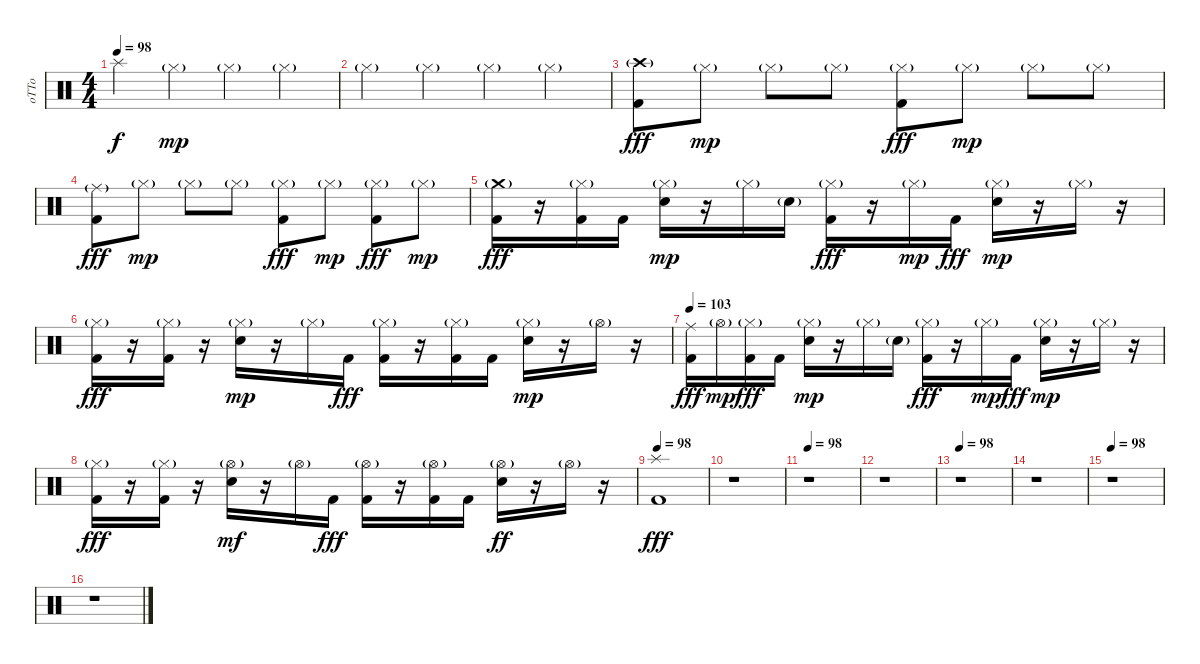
\track ("oTTo" "oTTo") {instrument percussion}
\staff {score}
\articulation defaults
\ts (4 4)
\tempo 98
\clef neutral
\ks c "Splash (hit)".4{dy f} "Hi-Hat (closed)"{g}.4{dy mp} "Hi-Hat (closed)"{g}.4 "Hi-Hat (closed)"{g}.4
|
"Hi-Hat (closed)"{g}.4 "Hi-Hat (closed)"{g}.4 "Hi-Hat (closed)"{g}.4 "Hi-Hat (closed)"{g}.4 |
("Crash high (hit)"{g} "Kick (hit) 2").8{dy fff} "Hi-Hat (closed)"{g}.8{dy mp} "Hi-Hat (closed)"{g}.8 "Hi-Hat (closed)"{g}.8 ("Hi-Hat (closed)"{g} "Kick (hit) 2").8{dy fff} "Hi-Hat (closed)"{g}.8{dy mp} "Hi-Hat (closed)"{g}.8 "Hi-Hat (closed)"{g}.8 |
("Ride (middle)"{g} "Kick (hit) 2").8{dy fff} "Hi-Hat (closed)"{g}.8{dy mp} "Hi-Hat (closed)"{g}.8 "Hi-Hat (closed)"{g}.8 ("Hi-Hat (closed)"{g} "Kick (hit) 2").8{dy fff} "Hi-Hat (closed)"{g}.8{dy mp} ("Hi-Hat (closed)"{g} "Kick (hit) 2").8{dy fff} "Hi-Hat (closed)"{g}.8{dy mp} |
("Crash medium (hit)"{g} "Kick (hit) 2").16{dy fff} r.16 ("Hi-Hat (closed)"{g} "Kick (hit) 2").16 "Kick (hit) 2".16 ("Hi-Hat (closed)"{g} "Snare (hit) 2").16{dy mp} r.16 "Hi-Hat (closed)"{g}.16 "Snare (hit) 2"{g}.16 ("Hi-Hat (closed)"{g} "Kick (hit) 2").16{dy fff} r.16 "Hi-Hat (closed)"{g}.16{dy mp} "Kick (hit) 2".16{dy fff} ("Hi-Hat (closed)"{g} "Snare (hit) 2").16{dy mp} r.16 "Hi-Hat (closed)"{g}.16 r.16 |
("Hi-Hat (closed)"{g} "Kick (hit) 2").16{dy fff} r.16 ("Hi-Hat (closed)"{g} "Kick (hit) 2").16 r.16 ("Hi-Hat (closed)"{g} "Snare (hit) 2").16{dy mp} r.16 "Hi-Hat (closed)"{g}.16 "Kick (hit) 2".16{dy fff} ("Hi-Hat (closed)"{g} "Kick (hit) 2").16 r.16 ("Hi-Hat (closed)"{g} "Kick (hit) 2").16 "Kick (hit) 2".16 ("Hi-Hat (closed)"{g} "Snare (hit) 2").16{dy mp} r.16 "Hi-Hat (open)"{g}.16 r.16 |
\tempo 103
("Ride (middle)" "Kick (hit) 2").16{dy fff} "Hi-Hat (open)"{g}.16{dy mp} ("Hi-Hat (closed)"{g} "Kick (hit) 2").16{dy fff} "Kick (hit) 2".16 ("Hi-Hat (closed)"{g} "Snare (hit) 2").16{dy mp} r.16 "Hi-Hat (closed)"{g}.16 "Snare (hit) 2"{g}.16 ("Hi-Hat (closed)"{g} "Kick (hit) 2").16{dy fff} r.16 "Hi-Hat (closed)"{g}.16{dy mp} "Kick (hit) 2".16{dy fff} ("Hi-Hat (closed)"{g} "Snare (hit) 2").16{dy mp} r.16 "Hi-Hat (closed)"{g}.16 r.16 |
("Hi-Hat (closed)"{g} "Kick (hit) 2").16{dy fff} r.16 ("Hi-Hat (closed)"{g} "Kick (hit) 2").16 r.16 ("Hi-Hat (open)"{g} "Snare (hit) 2").16{dy mf} r.16 "Hi-Hat (open)"{g}.16 "Kick (hit) 2".16{dy fff} ("Hi-Hat (open)"{g} "Kick (hit) 2").16 r.16 ("Hi-Hat (open)"{g} "Kick (hit) 2").16 "Kick (hit) 2".16 ("Hi-Hat (open)"{g} "Snare (hit) 2").16{dy ff} r.16 "Hi-Hat (open)"{g}.16 r.16 |
\tempo 98
("Splash (hit)" "Kick (hit) 2").1{dy fff} |
r.1 |
\tempo 98
r.1 |
r.1 |
\tempo 98
r.1 |
r.1 |
\tempo 98
r.1 |
r.1
